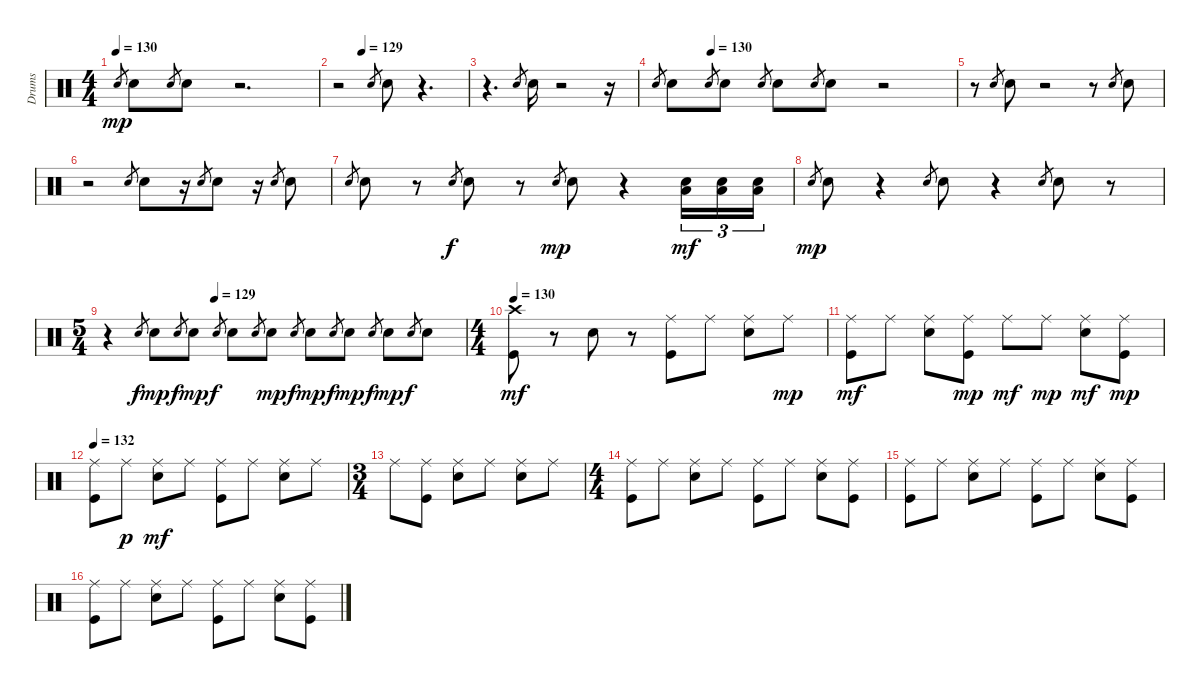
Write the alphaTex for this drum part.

\track ("Drums" "Drums") {instrument percussion}
\staff {score}
\articulation defaults
\ts (4 4)
\tempo 130
\clef neutral
\ks c "Electric Snare (hit)".8{gr dy mp} "Electric Snare (hit)".8 "Electric Snare (hit)".8{gr} "Electric Snare (hit)".8
r.2{d} |
\tempo (129 0.1875)
r.2 "Electric Snare (hit)".8{gr} "Electric Snare (hit)".8 r.4{d} |
r.4{d} "Electric Snare (hit)".8{gr} "Electric Snare (hit)".16 r.2 r.16 |
\tempo (130 0.1875)
"Electric Snare (hit)".8{gr} "Electric Snare (hit)".8 "Electric Snare (hit)".8{gr} "Electric Snare (hit)".8 "Electric Snare (hit)".8{gr} "Electric Snare (hit)".8 "Electric Snare (hit)".8{gr} "Electric Snare (hit)".8 r.2 |
r.8 "Electric Snare (hit)".8{gr} "Electric Snare (hit)".8 r.2 r.8 "Electric Snare (hit)".8{gr} "Electric Snare (hit)".8 |
r.2 "Electric Snare (hit)".8{gr} "Electric Snare (hit)".8 r.16 "Electric Snare (hit)".8{gr} "Electric Snare (hit)".8 r.16 "Electric Snare (hit)".8{gr} "Electric Snare (hit)".8 |
"Electric Snare (hit)".8{gr} "Electric Snare (hit)".8 r.8 "Electric Snare (hit)".8{gr dy f} "Electric Snare (hit)".8 r.8 "Electric Snare (hit)".8{gr dy mp} "Electric Snare (hit)".8 r.4 ("Low Floor Tom (hit)" "Electric Snare (hit)").16{tu (3 2) dy mf} ("Low Floor Tom (hit)" "Electric Snare (hit)").16{tu (3 2)} ("Low Floor Tom (hit)" "Electric Snare (hit)").16{tu (3 2)} |
"Electric Snare (hit)".8{gr dy mp} "Electric Snare (hit)".8 r.4 "Electric Snare (hit)".8{gr} "Electric Snare (hit)".8 r.4 "Electric Snare (hit)".8{gr} "Electric Snare (hit)".8 r.8 |
\ts (5 4)
\tempo (129 0.3)
r.4 "Electric Snare (hit)".8{gr dy f} "Electric Snare (hit)".8{dy mp} "Electric Snare (hit)".8{gr dy f} "Electric Snare (hit)".8{dy mp} "Electric Snare (hit)".8{gr dy f} "Electric Snare (hit)".8 "Electric Snare (hit)".8{gr} "Electric Snare (hit)".8{dy mp} "Electric Snare (hit)".8{gr dy f} "Electric Snare (hit)".8{dy mp} "Electric Snare (hit)".8{gr dy f} "Electric Snare (hit)".8{dy mp} "Electric Snare (hit)".8{gr dy f} "Electric Snare (hit)".8{dy mp} "Electric Snare (hit)".8{gr dy f} "Electric Snare (hit)".8 |
\ts (4 4)
\tempo 130
("Kick (hit)" "Crash high (hit)").8{dy mf} r.8 "Electric Snare (hit)".8 r.8 ("Kick (hit)" "Ride (middle)").8 "Ride (middle)".8 ("Electric Snare (hit)" "Ride (middle)").8 "Ride (middle)".8{dy mp} |
("Kick (hit)" "Ride (middle)").8{dy mf} "Ride (middle)".8 ("Electric Snare (hit)" "Ride (middle)").8 ("Kick (hit)" "Ride (middle)").8{dy mp} "Ride (middle)".8{dy mf} "Ride (middle)".8{dy mp} ("Electric Snare (hit)" "Ride (middle)").8{dy mf} ("Kick (hit)" "Ride (middle)").8{dy mp} |
\tempo 132
("Kick (hit)" "Ride (middle)").8 "Ride (middle)".8{dy p} ("Electric Snare (hit)" "Ride (middle)").8{dy mf} "Ride (middle)".8 ("Kick (hit)" "Ride (middle)").8 "Ride (middle)".8 ("Electric Snare (hit)" "Ride (middle)").8 "Ride (middle)".8 |
\ts (3 4)
"Ride (middle)".8 ("Kick (hit)" "Ride (middle)").8 ("Electric Snare (hit)" "Ride (middle)").8 "Ride (middle)".8 ("Electric Snare (hit)" "Ride (middle)").8 "Ride (middle)".8 |
\ts (4 4)
("Kick (hit)" "Ride (middle)").8 "Ride (middle)".8 ("Electric Snare (hit)" "Ride (middle)").8 "Ride (middle)".8 ("Kick (hit)" "Ride (middle)").8 "Ride (middle)".8 ("Electric Snare (hit)" "Ride (middle)").8 ("Kick (hit)" "Ride (middle)").8 |
("Kick (hit)" "Ride (middle)").8 "Ride (middle)".8 ("Electric Snare (hit)" "Ride (middle)").8 "Ride (middle)".8 ("Kick (hit)" "Ride (middle)").8 "Ride (middle)".8 ("Electric Snare (hit)" "Ride (middle)").8 ("Kick (hit)" "Ride (middle)").8 |
("Kick (hit)" "Ride (middle)").8 "Ride (middle)".8 ("Electric Snare (hit)" "Ride (middle)").8 "Ride (middle)".8 ("Kick (hit)" "Ride (middle)").8 "Ride (middle)".8 ("Electric Snare (hit)" "Ride (middle)").8 ("Kick (hit)" "Ride (middle)").8
